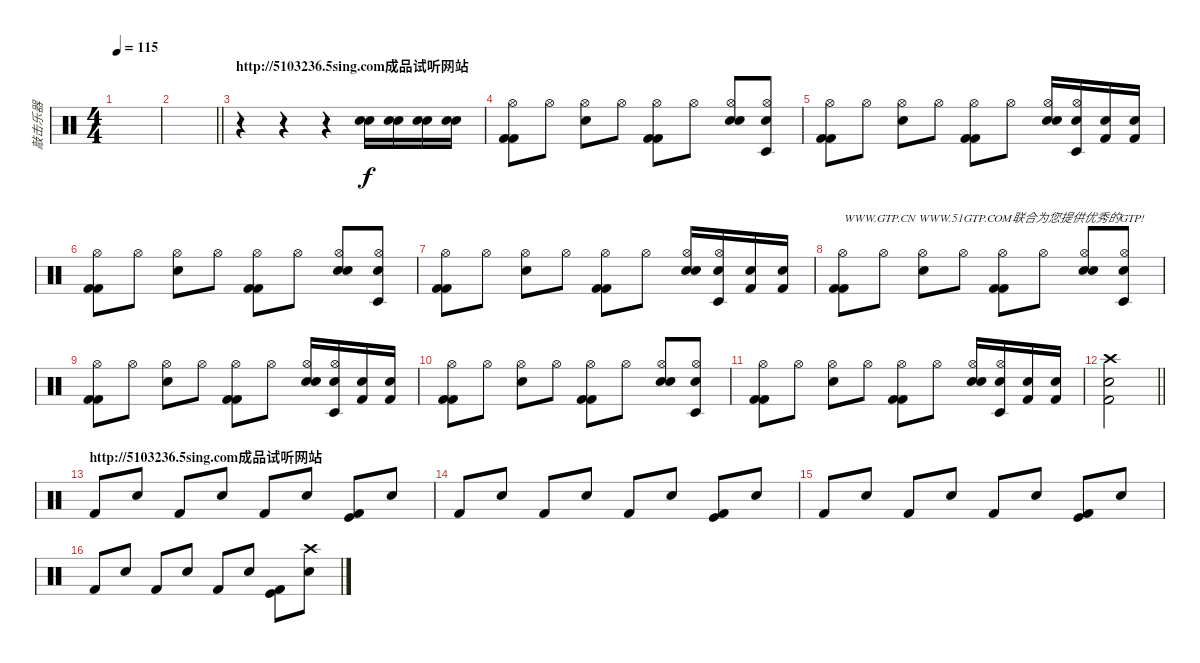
\track ("敲击乐器" "敲击乐器") {instrument percussion}
\staff {score}
\articulation defaults
\ts (4 4)
\tempo 115
\clef neutral
\ks c
|
\barLineRight lightlight
|
\section ("" "http://5103236.5sing.com成品试听网站")
r.4 r.4 r.4 ("Snare (hit) 2" "Electric Snare (hit)").16 ("Snare (hit) 2" "Electric Snare (hit)").16 ("Snare (hit) 2" "Electric Snare (hit)").16 ("Snare (hit) 2" "Electric Snare (hit)").16 |
("Hi-Hat (open)" "Kick (hit) 2" "Kick (hit) 2").8 "Hi-Hat (open)".8 ("Hi-Hat (open)" "Snare (hit) 2").8 "Hi-Hat (open)".8 ("Hi-Hat (open)" "Kick (hit) 2" "Kick (hit) 2").8 "Hi-Hat (open)".8 ("Hi-Hat (open)" "Snare (hit) 2" "Electric Snare (hit)").8 ("Hi-Hat (open)" "Timbale low (hit)" "Snare (hit) 2").8 |
("Hi-Hat (open)" "Kick (hit) 2" "Kick (hit) 2").8 "Hi-Hat (open)".8 ("Hi-Hat (open)" "Snare (hit) 2").8 "Hi-Hat (open)".8 ("Hi-Hat (open)" "Kick (hit) 2" "Kick (hit) 2").8 "Hi-Hat (open)".8 ("Hi-Hat (open)" "Snare (hit) 2" "Electric Snare (hit)").16 ("Hi-Hat (open)" "Timbale low (hit)" "Snare (hit) 2").16 ("Kick (hit) 2" "Snare (hit) 2").16 ("Snare (hit) 2" "Kick (hit) 2").16 |
("Hi-Hat (open)" "Kick (hit) 2" "Kick (hit) 2").8 "Hi-Hat (open)".8 ("Hi-Hat (open)" "Snare (hit) 2").8 "Hi-Hat (open)".8 ("Hi-Hat (open)" "Kick (hit) 2" "Kick (hit) 2").8 "Hi-Hat (open)".8 ("Hi-Hat (open)" "Snare (hit) 2" "Electric Snare (hit)").8 ("Hi-Hat (open)" "Timbale low (hit)" "Snare (hit) 2").8 |
("Hi-Hat (open)" "Kick (hit) 2" "Kick (hit) 2").8 "Hi-Hat (open)".8 ("Hi-Hat (open)" "Snare (hit) 2").8 "Hi-Hat (open)".8 ("Hi-Hat (open)" "Kick (hit) 2" "Kick (hit) 2").8 "Hi-Hat (open)".8 ("Hi-Hat (open)" "Snare (hit) 2" "Electric Snare (hit)").16 ("Hi-Hat (open)" "Timbale low (hit)" "Snare (hit) 2").16 ("Kick (hit) 2" "Snare (hit) 2").16 ("Snare (hit) 2" "Kick (hit) 2").16 |
("Hi-Hat (open)" "Kick (hit) 2" "Kick (hit) 2").8{txt "WWW.GTP.CN WWW.51GTP.COM联合为您提供优秀的GTP!"} "Hi-Hat (open)".8 ("Hi-Hat (open)" "Snare (hit) 2").8 "Hi-Hat (open)".8 ("Hi-Hat (open)" "Kick (hit) 2" "Kick (hit) 2").8 "Hi-Hat (open)".8 ("Hi-Hat (open)" "Snare (hit) 2" "Electric Snare (hit)").8 ("Hi-Hat (open)" "Timbale low (hit)" "Snare (hit) 2").8 |
("Hi-Hat (open)" "Kick (hit) 2" "Kick (hit) 2").8 "Hi-Hat (open)".8 ("Hi-Hat (open)" "Snare (hit) 2").8 "Hi-Hat (open)".8 ("Hi-Hat (open)" "Kick (hit) 2" "Kick (hit) 2").8 "Hi-Hat (open)".8 ("Hi-Hat (open)" "Snare (hit) 2" "Electric Snare (hit)").16 ("Hi-Hat (open)" "Timbale low (hit)" "Snare (hit) 2").16 ("Kick (hit) 2" "Snare (hit) 2").16 ("Snare (hit) 2" "Kick (hit) 2").16 |
("Hi-Hat (open)" "Kick (hit) 2" "Kick (hit) 2").8 "Hi-Hat (open)".8 ("Hi-Hat (open)" "Snare (hit) 2").8 "Hi-Hat (open)".8 ("Hi-Hat (open)" "Kick (hit) 2" "Kick (hit) 2").8 "Hi-Hat (open)".8 ("Hi-Hat (open)" "Snare (hit) 2" "Electric Snare (hit)").8 ("Hi-Hat (open)" "Timbale low (hit)" "Snare (hit) 2").8 |
("Hi-Hat (open)" "Kick (hit) 2" "Kick (hit) 2").8 "Hi-Hat (open)".8 ("Hi-Hat (open)" "Snare (hit) 2").8 "Hi-Hat (open)".8 ("Hi-Hat (open)" "Kick (hit) 2" "Kick (hit) 2").8 "Hi-Hat (open)".8 ("Hi-Hat (open)" "Snare (hit) 2" "Electric Snare (hit)").16 ("Hi-Hat (open)" "Timbale low (hit)" "Snare (hit) 2").16 ("Kick (hit) 2" "Snare (hit) 2").16 ("Snare (hit) 2" "Kick (hit) 2").16 |
\barLineRight lightlight
("Crash high (hit)" "Kick (hit) 2" "Snare (hit) 2").2 |
\section ("" "http://5103236.5sing.com成品试听网站")
"Kick (hit) 2".8 "Snare (hit) 2".8 "Kick (hit) 2".8 "Snare (hit) 2".8 "Kick (hit) 2".8 "Snare (hit) 2".8 ("Kick (hit)" "Kick (hit) 2").8 "Snare (hit) 2".8 |
"Kick (hit) 2".8 "Snare (hit) 2".8 "Kick (hit) 2".8 "Snare (hit) 2".8 "Kick (hit) 2".8 "Snare (hit) 2".8 ("Kick (hit)" "Kick (hit) 2").8 "Snare (hit) 2".8 |
"Kick (hit) 2".8 "Snare (hit) 2".8 "Kick (hit) 2".8 "Snare (hit) 2".8 "Kick (hit) 2".8 "Snare (hit) 2".8 ("Kick (hit)" "Kick (hit) 2").8 "Snare (hit) 2".8 |
"Kick (hit) 2".8 "Snare (hit) 2".8 "Kick (hit) 2".8 "Snare (hit) 2".8 "Kick (hit) 2".8 "Snare (hit) 2".8 ("Kick (hit)" "Kick (hit) 2").8 ("Snare (hit) 2" "Crash high (hit)").8
